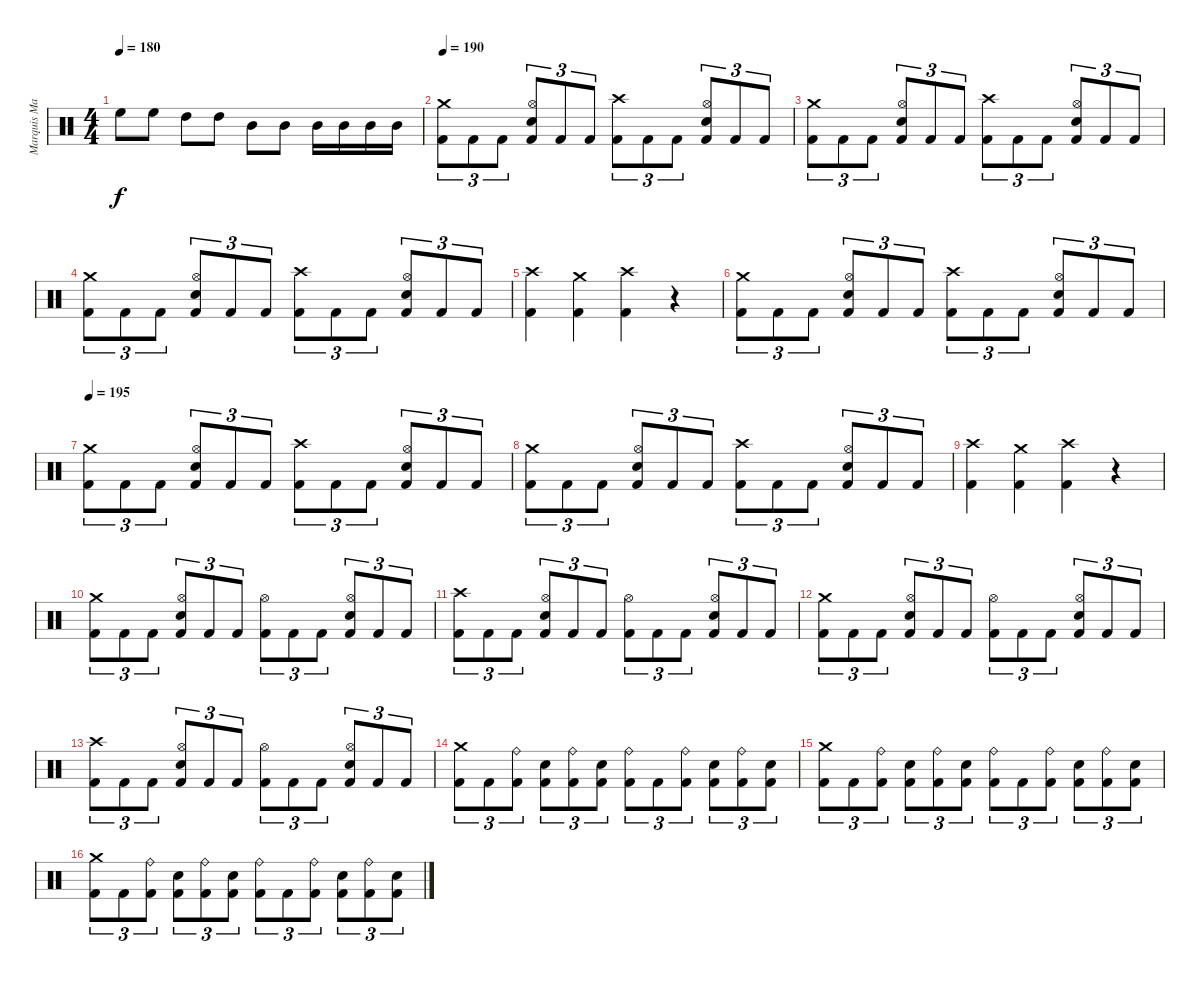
\track ("Marquis Marky (DRUMS)" "Marquis Ma") {instrument percussion}
\staff {score}
\articulation defaults
\ts (4 4)
\tempo 180
\clef neutral
\ks c "High Floor Tom (hit)".8{dy f} "High Floor Tom (hit)".8 "High Tom (hit)".8 "High Tom (hit)".8 "Mid Tom (hit)".8 "Mid Tom (hit)".8 "Mid Tom (hit)".16 "Mid Tom (hit)".16 "Mid Tom (hit)".16 "Mid Tom (hit)".16
|
\tempo 190
("Crash medium (hit)" "Kick (hit) 2").8{tu (3 2)} "Kick (hit) 2".8{tu (3 2)} "Kick (hit) 2".8{tu (3 2)} ("Hi-Hat (open)" "Snare (hit) 2" "Kick (hit) 2").8{tu (3 2)} "Kick (hit) 2".8{tu (3 2)} "Kick (hit) 2".8{tu (3 2)} ("Crash high (hit)" "Kick (hit) 2").8{tu (3 2)} "Kick (hit) 2".8{tu (3 2)} "Kick (hit) 2".8{tu (3 2)} ("Hi-Hat (open)" "Snare (hit) 2" "Kick (hit) 2").8{tu (3 2)} "Kick (hit) 2".8{tu (3 2)} "Kick (hit) 2".8{tu (3 2)} |
("Crash medium (hit)" "Kick (hit) 2").8{tu (3 2)} "Kick (hit) 2".8{tu (3 2)} "Kick (hit) 2".8{tu (3 2)} ("Hi-Hat (open)" "Snare (hit) 2" "Kick (hit) 2").8{tu (3 2)} "Kick (hit) 2".8{tu (3 2)} "Kick (hit) 2".8{tu (3 2)} ("Crash high (hit)" "Kick (hit) 2").8{tu (3 2)} "Kick (hit) 2".8{tu (3 2)} "Kick (hit) 2".8{tu (3 2)} ("Hi-Hat (open)" "Snare (hit) 2" "Kick (hit) 2").8{tu (3 2)} "Kick (hit) 2".8{tu (3 2)} "Kick (hit) 2".8{tu (3 2)} |
("Crash medium (hit)" "Kick (hit) 2").8{tu (3 2)} "Kick (hit) 2".8{tu (3 2)} "Kick (hit) 2".8{tu (3 2)} ("Hi-Hat (open)" "Snare (hit) 2" "Kick (hit) 2").8{tu (3 2)} "Kick (hit) 2".8{tu (3 2)} "Kick (hit) 2".8{tu (3 2)} ("Crash high (hit)" "Kick (hit) 2").8{tu (3 2)} "Kick (hit) 2".8{tu (3 2)} "Kick (hit) 2".8{tu (3 2)} ("Hi-Hat (open)" "Snare (hit) 2" "Kick (hit) 2").8{tu (3 2)} "Kick (hit) 2".8{tu (3 2)} "Kick (hit) 2".8{tu (3 2)} |
("Crash high (hit)" "Kick (hit) 2").4 ("Crash medium (hit)" "Kick (hit) 2").4 ("Crash high (hit)" "Kick (hit) 2").4 r.4 |
("Crash medium (hit)" "Kick (hit) 2").8{tu (3 2)} "Kick (hit) 2".8{tu (3 2)} "Kick (hit) 2".8{tu (3 2)} ("Hi-Hat (open)" "Snare (hit) 2" "Kick (hit) 2").8{tu (3 2)} "Kick (hit) 2".8{tu (3 2)} "Kick (hit) 2".8{tu (3 2)} ("Crash high (hit)" "Kick (hit) 2").8{tu (3 2)} "Kick (hit) 2".8{tu (3 2)} "Kick (hit) 2".8{tu (3 2)} ("Hi-Hat (open)" "Snare (hit) 2" "Kick (hit) 2").8{tu (3 2)} "Kick (hit) 2".8{tu (3 2)} "Kick (hit) 2".8{tu (3 2)} |
\tempo 195
("Crash medium (hit)" "Kick (hit) 2").8{tu (3 2)} "Kick (hit) 2".8{tu (3 2)} "Kick (hit) 2".8{tu (3 2)} ("Hi-Hat (open)" "Snare (hit) 2" "Kick (hit) 2").8{tu (3 2)} "Kick (hit) 2".8{tu (3 2)} "Kick (hit) 2".8{tu (3 2)} ("Crash high (hit)" "Kick (hit) 2").8{tu (3 2)} "Kick (hit) 2".8{tu (3 2)} "Kick (hit) 2".8{tu (3 2)} ("Hi-Hat (open)" "Snare (hit) 2" "Kick (hit) 2").8{tu (3 2)} "Kick (hit) 2".8{tu (3 2)} "Kick (hit) 2".8{tu (3 2)} |
("Crash medium (hit)" "Kick (hit) 2").8{tu (3 2)} "Kick (hit) 2".8{tu (3 2)} "Kick (hit) 2".8{tu (3 2)} ("Hi-Hat (open)" "Snare (hit) 2" "Kick (hit) 2").8{tu (3 2)} "Kick (hit) 2".8{tu (3 2)} "Kick (hit) 2".8{tu (3 2)} ("Crash high (hit)" "Kick (hit) 2").8{tu (3 2)} "Kick (hit) 2".8{tu (3 2)} "Kick (hit) 2".8{tu (3 2)} ("Hi-Hat (open)" "Snare (hit) 2" "Kick (hit) 2").8{tu (3 2)} "Kick (hit) 2".8{tu (3 2)} "Kick (hit) 2".8{tu (3 2)} |
("Crash high (hit)" "Kick (hit) 2").4 ("Crash medium (hit)" "Kick (hit) 2").4 ("Crash high (hit)" "Kick (hit) 2").4 r.4 |
("Crash medium (hit)" "Kick (hit) 2").8{tu (3 2)} "Kick (hit) 2".8{tu (3 2)} "Kick (hit) 2".8{tu (3 2)} ("Hi-Hat (open)" "Snare (hit) 2" "Kick (hit) 2").8{tu (3 2)} "Kick (hit) 2".8{tu (3 2)} "Kick (hit) 2".8{tu (3 2)} ("Hi-Hat (open)" "Kick (hit) 2").8{tu (3 2)} "Kick (hit) 2".8{tu (3 2)} "Kick (hit) 2".8{tu (3 2)} ("Hi-Hat (open)" "Snare (hit) 2" "Kick (hit) 2").8{tu (3 2)} "Kick (hit) 2".8{tu (3 2)} "Kick (hit) 2".8{tu (3 2)} |
("Crash high (hit)" "Kick (hit) 2").8{tu (3 2)} "Kick (hit) 2".8{tu (3 2)} "Kick (hit) 2".8{tu (3 2)} ("Hi-Hat (open)" "Snare (hit) 2" "Kick (hit) 2").8{tu (3 2)} "Kick (hit) 2".8{tu (3 2)} "Kick (hit) 2".8{tu (3 2)} ("Hi-Hat (open)" "Kick (hit) 2").8{tu (3 2)} "Kick (hit) 2".8{tu (3 2)} "Kick (hit) 2".8{tu (3 2)} ("Hi-Hat (open)" "Snare (hit) 2" "Kick (hit) 2").8{tu (3 2)} "Kick (hit) 2".8{tu (3 2)} "Kick (hit) 2".8{tu (3 2)} |
("Crash medium (hit)" "Kick (hit) 2").8{tu (3 2)} "Kick (hit) 2".8{tu (3 2)} "Kick (hit) 2".8{tu (3 2)} ("Hi-Hat (open)" "Snare (hit) 2" "Kick (hit) 2").8{tu (3 2)} "Kick (hit) 2".8{tu (3 2)} "Kick (hit) 2".8{tu (3 2)} ("Hi-Hat (open)" "Kick (hit) 2").8{tu (3 2)} "Kick (hit) 2".8{tu (3 2)} "Kick (hit) 2".8{tu (3 2)} ("Hi-Hat (open)" "Snare (hit) 2" "Kick (hit) 2").8{tu (3 2)} "Kick (hit) 2".8{tu (3 2)} "Kick (hit) 2".8{tu (3 2)} |
("Crash high (hit)" "Kick (hit) 2").8{tu (3 2)} "Kick (hit) 2".8{tu (3 2)} "Kick (hit) 2".8{tu (3 2)} ("Hi-Hat (open)" "Snare (hit) 2" "Kick (hit) 2").8{tu (3 2)} "Kick (hit) 2".8{tu (3 2)} "Kick (hit) 2".8{tu (3 2)} ("Hi-Hat (open)" "Kick (hit) 2").8{tu (3 2)} "Kick (hit) 2".8{tu (3 2)} "Kick (hit) 2".8{tu (3 2)} ("Hi-Hat (open)" "Snare (hit) 2" "Kick (hit) 2").8{tu (3 2)} "Kick (hit) 2".8{tu (3 2)} "Kick (hit) 2".8{tu (3 2)} |
("Crash medium (hit)" "Kick (hit) 2").8{tu (3 2)} "Kick (hit) 2".8{tu (3 2)} ("Ride (bell)" "Kick (hit) 2").8{tu (3 2)} ("Snare (hit) 2" "Kick (hit) 2").8{tu (3 2)} ("Ride (bell)" "Kick (hit) 2").8{tu (3 2)} ("Snare (hit) 2" "Kick (hit) 2").8{tu (3 2)} ("Ride (bell)" "Kick (hit) 2").8{tu (3 2)} "Kick (hit) 2".8{tu (3 2)} ("Ride (bell)" "Kick (hit) 2").8{tu (3 2)} ("Snare (hit) 2" "Kick (hit) 2").8{tu (3 2)} ("Ride (bell)" "Kick (hit) 2").8{tu (3 2)} ("Snare (hit) 2" "Kick (hit) 2").8{tu (3 2)} |
("Crash medium (hit)" "Kick (hit) 2").8{tu (3 2)} "Kick (hit) 2".8{tu (3 2)} ("Ride (bell)" "Kick (hit) 2").8{tu (3 2)} ("Snare (hit) 2" "Kick (hit) 2").8{tu (3 2)} ("Ride (bell)" "Kick (hit) 2").8{tu (3 2)} ("Snare (hit) 2" "Kick (hit) 2").8{tu (3 2)} ("Ride (bell)" "Kick (hit) 2").8{tu (3 2)} "Kick (hit) 2".8{tu (3 2)} ("Ride (bell)" "Kick (hit) 2").8{tu (3 2)} ("Snare (hit) 2" "Kick (hit) 2").8{tu (3 2)} ("Ride (bell)" "Kick (hit) 2").8{tu (3 2)} ("Snare (hit) 2" "Kick (hit) 2").8{tu (3 2)} |
("Crash medium (hit)" "Kick (hit) 2").8{tu (3 2)} "Kick (hit) 2".8{tu (3 2)} ("Ride (bell)" "Kick (hit) 2").8{tu (3 2)} ("Snare (hit) 2" "Kick (hit) 2").8{tu (3 2)} ("Ride (bell)" "Kick (hit) 2").8{tu (3 2)} ("Snare (hit) 2" "Kick (hit) 2").8{tu (3 2)} ("Ride (bell)" "Kick (hit) 2").8{tu (3 2)} "Kick (hit) 2".8{tu (3 2)} ("Ride (bell)" "Kick (hit) 2").8{tu (3 2)} ("Snare (hit) 2" "Kick (hit) 2").8{tu (3 2)} ("Ride (bell)" "Kick (hit) 2").8{tu (3 2)} ("Snare (hit) 2" "Kick (hit) 2").8{tu (3 2)}
